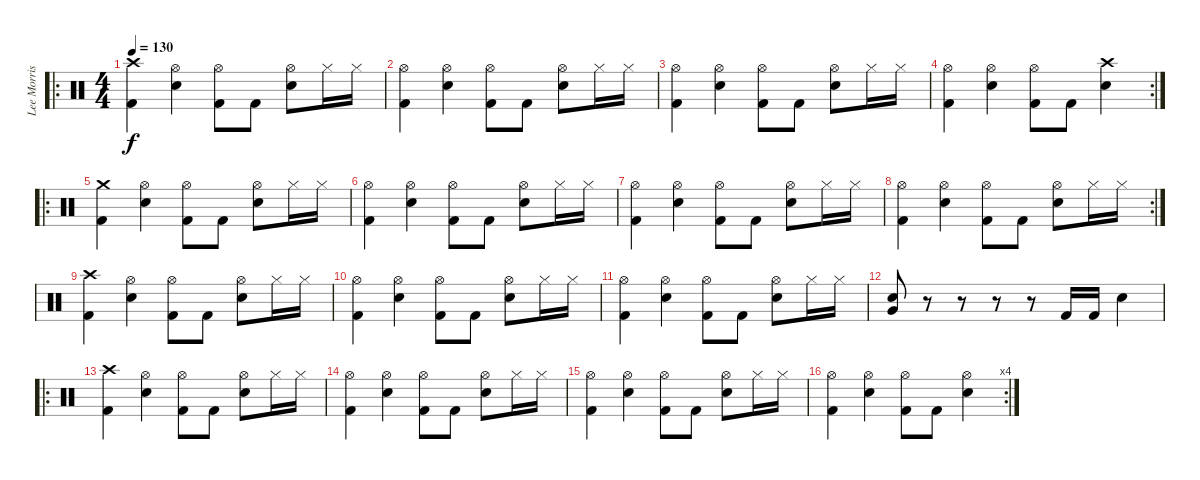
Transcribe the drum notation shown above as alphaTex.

\track ("Lee Morris" "Lee Morris") {instrument percussion}
\staff {score}
\articulation defaults
\ro
\ts (4 4)
\tempo 130
\clef neutral
\ks c
("Crash high (hit)" "Kick (hit) 2").4{dy f} ("Hi-Hat (open)" "Electric Snare (hit)").4 ("Hi-Hat (open)" "Kick (hit) 2").8 "Kick (hit) 2".8 ("Hi-Hat (open)" "Electric Snare (hit)").8 "Hi-Hat (closed)".16 "Hi-Hat (closed)".16 |
("Hi-Hat (open)" "Kick (hit) 2").4 ("Hi-Hat (open)" "Electric Snare (hit)").4 ("Hi-Hat (open)" "Kick (hit) 2").8 "Kick (hit) 2".8 ("Hi-Hat (open)" "Electric Snare (hit)").8 "Hi-Hat (closed)".16 "Hi-Hat (closed)".16 |
("Hi-Hat (open)" "Kick (hit) 2").4 ("Hi-Hat (open)" "Electric Snare (hit)").4 ("Hi-Hat (open)" "Kick (hit) 2").8 "Kick (hit) 2".8 ("Hi-Hat (open)" "Electric Snare (hit)").8 "Hi-Hat (closed)".16 "Hi-Hat (closed)".16 |
\rc 2
("Hi-Hat (open)" "Kick (hit) 2").4 ("Hi-Hat (open)" "Electric Snare (hit)").4 ("Hi-Hat (open)" "Kick (hit) 2").8 "Kick (hit) 2".8 ("Crash high (hit)" "Electric Snare (hit)").4 |
\ro
("Crash medium (hit)" "Kick (hit) 2").4 ("Hi-Hat (open)" "Electric Snare (hit)").4 ("Hi-Hat (open)" "Kick (hit) 2").8 "Kick (hit) 2".8 ("Hi-Hat (open)" "Electric Snare (hit)").8 "Hi-Hat (closed)".16 "Hi-Hat (closed)".16 |
("Hi-Hat (open)" "Kick (hit) 2").4 ("Hi-Hat (open)" "Electric Snare (hit)").4 ("Hi-Hat (open)" "Kick (hit) 2").8 "Kick (hit) 2".8 ("Hi-Hat (open)" "Electric Snare (hit)").8 "Hi-Hat (closed)".16 "Hi-Hat (closed)".16 |
("Hi-Hat (open)" "Kick (hit) 2").4 ("Hi-Hat (open)" "Electric Snare (hit)").4 ("Hi-Hat (open)" "Kick (hit) 2").8 "Kick (hit) 2".8 ("Hi-Hat (open)" "Electric Snare (hit)").8 "Hi-Hat (closed)".16 "Hi-Hat (closed)".16 |
\rc 2
("Hi-Hat (open)" "Kick (hit) 2").4 ("Hi-Hat (open)" "Electric Snare (hit)").4 ("Hi-Hat (open)" "Kick (hit) 2").8 "Kick (hit) 2".8 ("Hi-Hat (open)" "Electric Snare (hit)").8 "Hi-Hat (closed)".16 "Hi-Hat (closed)".16 |
("Crash high (hit)" "Kick (hit) 2").4 ("Hi-Hat (open)" "Electric Snare (hit)").4 ("Hi-Hat (open)" "Kick (hit) 2").8 "Kick (hit) 2".8 ("Hi-Hat (open)" "Electric Snare (hit)").8 "Hi-Hat (closed)".16 "Hi-Hat (closed)".16 |
("Hi-Hat (open)" "Kick (hit) 2").4 ("Hi-Hat (open)" "Electric Snare (hit)").4 ("Hi-Hat (open)" "Kick (hit) 2").8 "Kick (hit) 2".8 ("Hi-Hat (open)" "Electric Snare (hit)").8 "Hi-Hat (closed)".16 "Hi-Hat (closed)".16 |
("Hi-Hat (open)" "Kick (hit) 2").4 ("Hi-Hat (open)" "Electric Snare (hit)").4 ("Hi-Hat (open)" "Kick (hit) 2").8 "Kick (hit) 2".8 ("Hi-Hat (open)" "Electric Snare (hit)").8 "Hi-Hat (closed)".16 "Hi-Hat (closed)".16 |
("Very Low Tom (hit)" "Electric Snare (hit)").8 r.8 r.8 r.8 r.8 "Kick (hit) 2".16 "Kick (hit) 2".16 "Electric Snare (hit)".4 |
\ro
("Crash high (hit)" "Kick (hit) 2").4 ("Hi-Hat (open)" "Electric Snare (hit)").4 ("Hi-Hat (open)" "Kick (hit) 2").8 "Kick (hit) 2".8 ("Hi-Hat (open)" "Electric Snare (hit)").8 "Hi-Hat (closed)".16 "Hi-Hat (closed)".16 |
("Hi-Hat (open)" "Kick (hit) 2").4 ("Hi-Hat (open)" "Electric Snare (hit)").4 ("Hi-Hat (open)" "Kick (hit) 2").8 "Kick (hit) 2".8 ("Hi-Hat (open)" "Electric Snare (hit)").8 "Hi-Hat (closed)".16 "Hi-Hat (closed)".16 |
("Hi-Hat (open)" "Kick (hit) 2").4 ("Hi-Hat (open)" "Electric Snare (hit)").4 ("Hi-Hat (open)" "Kick (hit) 2").8 "Kick (hit) 2".8 ("Hi-Hat (open)" "Electric Snare (hit)").8 "Hi-Hat (closed)".16 "Hi-Hat (closed)".16 |
\rc 4
("Hi-Hat (open)" "Kick (hit) 2").4 ("Hi-Hat (open)" "Electric Snare (hit)").4 ("Hi-Hat (open)" "Kick (hit) 2").8 "Kick (hit) 2".8 ("Hi-Hat (open)" "Electric Snare (hit)").4
